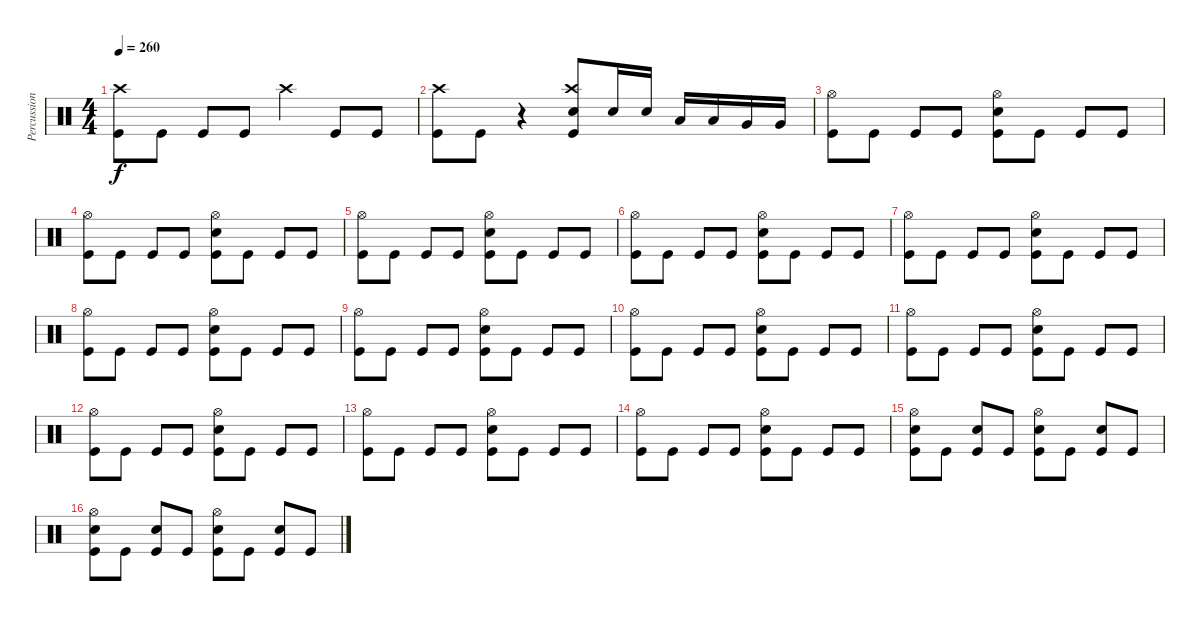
\track ("Percussion" "Percussion") {instrument percussion}
\staff {score}
\articulation defaults
\ts (4 4)
\tempo 260
\clef neutral
\ks c
("Kick (hit)" "Crash high (hit)").8{dy f} "Kick (hit)".8 "Kick (hit)".8 "Kick (hit)".8 "Crash high (hit)".4 "Kick (hit)".8 "Kick (hit)".8 |
("Kick (hit)" "Crash high (hit)").8 "Kick (hit)".8 r.4 ("Kick (hit)" "Snare (hit) 2" "Crash high (hit)").8 "Snare (hit) 2".16 "Snare (hit) 2".16 "Low Tom (hit)".16 "Low Tom (hit)".16 "Very Low Tom (hit)".16 "Very Low Tom (hit)".16 |
("Kick (hit)" "Hi-Hat (open)").8 "Kick (hit)".8 "Kick (hit)".8 "Kick (hit)".8 ("Kick (hit)" "Snare (hit) 2" "Hi-Hat (open)").8 "Kick (hit)".8 "Kick (hit)".8 "Kick (hit)".8 |
("Kick (hit)" "Hi-Hat (open)").8 "Kick (hit)".8 "Kick (hit)".8 "Kick (hit)".8 ("Kick (hit)" "Snare (hit) 2" "Hi-Hat (open)").8 "Kick (hit)".8 "Kick (hit)".8 "Kick (hit)".8 |
("Kick (hit)" "Hi-Hat (open)").8 "Kick (hit)".8 "Kick (hit)".8 "Kick (hit)".8 ("Kick (hit)" "Snare (hit) 2" "Hi-Hat (open)").8 "Kick (hit)".8 "Kick (hit)".8 "Kick (hit)".8 |
("Kick (hit)" "Hi-Hat (open)").8 "Kick (hit)".8 "Kick (hit)".8 "Kick (hit)".8 ("Kick (hit)" "Snare (hit) 2" "Hi-Hat (open)").8 "Kick (hit)".8 "Kick (hit)".8 "Kick (hit)".8 |
("Kick (hit)" "Hi-Hat (open)").8 "Kick (hit)".8 "Kick (hit)".8 "Kick (hit)".8 ("Kick (hit)" "Snare (hit) 2" "Hi-Hat (open)").8 "Kick (hit)".8 "Kick (hit)".8 "Kick (hit)".8 |
("Kick (hit)" "Hi-Hat (open)").8 "Kick (hit)".8 "Kick (hit)".8 "Kick (hit)".8 ("Kick (hit)" "Snare (hit) 2" "Hi-Hat (open)").8 "Kick (hit)".8 "Kick (hit)".8 "Kick (hit)".8 |
("Kick (hit)" "Hi-Hat (open)").8 "Kick (hit)".8 "Kick (hit)".8 "Kick (hit)".8 ("Kick (hit)" "Snare (hit) 2" "Hi-Hat (open)").8 "Kick (hit)".8 "Kick (hit)".8 "Kick (hit)".8 |
("Kick (hit)" "Hi-Hat (open)").8 "Kick (hit)".8 "Kick (hit)".8 "Kick (hit)".8 ("Kick (hit)" "Snare (hit) 2" "Hi-Hat (open)").8 "Kick (hit)".8 "Kick (hit)".8 "Kick (hit)".8 |
("Kick (hit)" "Hi-Hat (open)").8 "Kick (hit)".8 "Kick (hit)".8 "Kick (hit)".8 ("Kick (hit)" "Snare (hit) 2" "Hi-Hat (open)").8 "Kick (hit)".8 "Kick (hit)".8 "Kick (hit)".8 |
("Kick (hit)" "Hi-Hat (open)").8 "Kick (hit)".8 "Kick (hit)".8 "Kick (hit)".8 ("Kick (hit)" "Snare (hit) 2" "Hi-Hat (open)").8 "Kick (hit)".8 "Kick (hit)".8 "Kick (hit)".8 |
("Kick (hit)" "Hi-Hat (open)").8 "Kick (hit)".8 "Kick (hit)".8 "Kick (hit)".8 ("Kick (hit)" "Snare (hit) 2" "Hi-Hat (open)").8 "Kick (hit)".8 "Kick (hit)".8 "Kick (hit)".8 |
("Kick (hit)" "Hi-Hat (open)").8 "Kick (hit)".8 "Kick (hit)".8 "Kick (hit)".8 ("Kick (hit)" "Snare (hit) 2" "Hi-Hat (open)").8 "Kick (hit)".8 "Kick (hit)".8 "Kick (hit)".8 |
("Kick (hit)" "Snare (hit) 2" "Hi-Hat (open)").8 "Kick (hit)".8 ("Kick (hit)" "Snare (hit) 2").8 "Kick (hit)".8 ("Kick (hit)" "Snare (hit) 2" "Hi-Hat (open)").8 "Kick (hit)".8 ("Kick (hit)" "Snare (hit) 2").8 "Kick (hit)".8 |
("Kick (hit)" "Snare (hit) 2" "Hi-Hat (open)").8 "Kick (hit)".8 ("Kick (hit)" "Snare (hit) 2").8 "Kick (hit)".8 ("Kick (hit)" "Snare (hit) 2" "Hi-Hat (open)").8 "Kick (hit)".8 ("Kick (hit)" "Snare (hit) 2").8 "Kick (hit)".8
